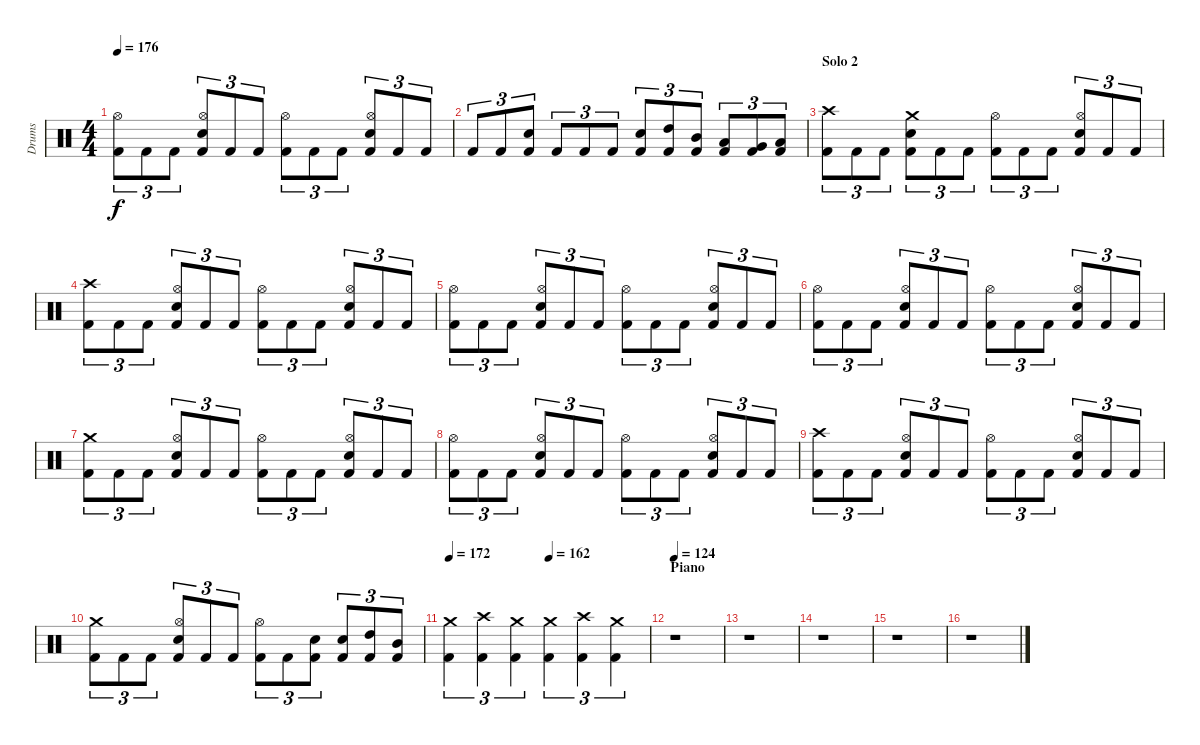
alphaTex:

\track ("Drums" "Drums") {instrument percussion}
\staff {score}
\articulation defaults
\ts (4 4)
\tempo 176
\clef neutral
\ks c
("Kick (hit) 2" "Hi-Hat (open)").8{tu (3 2) dy f} "Kick (hit) 2".8{tu (3 2)} "Kick (hit) 2".8{tu (3 2)} ("Kick (hit) 2" "Electric Snare (hit)" "Hi-Hat (open)").8{tu (3 2)} "Kick (hit) 2".8{tu (3 2)} "Kick (hit) 2".8{tu (3 2)} ("Kick (hit) 2" "Hi-Hat (open)").8{tu (3 2)} "Kick (hit) 2".8{tu (3 2)} "Kick (hit) 2".8{tu (3 2)} ("Kick (hit) 2" "Electric Snare (hit)" "Hi-Hat (open)").8{tu (3 2)} "Kick (hit) 2".8{tu (3 2)} "Kick (hit) 2".8{tu (3 2)} |
"Kick (hit) 2".8{tu (3 2)} "Kick (hit) 2".8{tu (3 2)} ("Kick (hit) 2" "Electric Snare (hit)").8{tu (3 2)} "Kick (hit) 2".8{tu (3 2)} "Kick (hit) 2".8{tu (3 2)} "Kick (hit) 2".8{tu (3 2)} ("Kick (hit) 2" "Electric Snare (hit)").8{tu (3 2)} ("Kick (hit) 2" "High Tom (hit)").8{tu (3 2)} ("Kick (hit) 2" "Mid Tom (hit)").8{tu (3 2)} ("Kick (hit) 2" "Low Tom (hit)").8{tu (3 2)} ("Kick (hit) 2" "Very Low Tom (hit)").8{tu (3 2)} ("Kick (hit) 2" "Low Floor Tom (hit)").8{tu (3 2)} |
\section ("" "Solo 2")
("Kick (hit) 2" "Crash high (hit)").8{tu (3 2)} "Kick (hit) 2".8{tu (3 2)} "Kick (hit) 2".8{tu (3 2)} ("Kick (hit) 2" "Electric Snare (hit)" "Crash medium (hit)").8{tu (3 2)} "Kick (hit) 2".8{tu (3 2)} "Kick (hit) 2".8{tu (3 2)} ("Kick (hit) 2" "Hi-Hat (open)").8{tu (3 2)} "Kick (hit) 2".8{tu (3 2)} "Kick (hit) 2".8{tu (3 2)} ("Kick (hit) 2" "Electric Snare (hit)" "Hi-Hat (open)").8{tu (3 2)} "Kick (hit) 2".8{tu (3 2)} "Kick (hit) 2".8{tu (3 2)} |
("Kick (hit) 2" "Crash high (hit)").8{tu (3 2)} "Kick (hit) 2".8{tu (3 2)} "Kick (hit) 2".8{tu (3 2)} ("Kick (hit) 2" "Electric Snare (hit)" "Hi-Hat (open)").8{tu (3 2)} "Kick (hit) 2".8{tu (3 2)} "Kick (hit) 2".8{tu (3 2)} ("Kick (hit) 2" "Hi-Hat (open)").8{tu (3 2)} "Kick (hit) 2".8{tu (3 2)} "Kick (hit) 2".8{tu (3 2)} ("Kick (hit) 2" "Electric Snare (hit)" "Hi-Hat (open)").8{tu (3 2)} "Kick (hit) 2".8{tu (3 2)} "Kick (hit) 2".8{tu (3 2)} |
("Kick (hit) 2" "Hi-Hat (open)").8{tu (3 2)} "Kick (hit) 2".8{tu (3 2)} "Kick (hit) 2".8{tu (3 2)} ("Kick (hit) 2" "Electric Snare (hit)" "Hi-Hat (open)").8{tu (3 2)} "Kick (hit) 2".8{tu (3 2)} "Kick (hit) 2".8{tu (3 2)} ("Kick (hit) 2" "Hi-Hat (open)").8{tu (3 2)} "Kick (hit) 2".8{tu (3 2)} "Kick (hit) 2".8{tu (3 2)} ("Kick (hit) 2" "Electric Snare (hit)" "Hi-Hat (open)").8{tu (3 2)} "Kick (hit) 2".8{tu (3 2)} "Kick (hit) 2".8{tu (3 2)} |
("Kick (hit) 2" "Hi-Hat (open)").8{tu (3 2)} "Kick (hit) 2".8{tu (3 2)} "Kick (hit) 2".8{tu (3 2)} ("Kick (hit) 2" "Electric Snare (hit)" "Hi-Hat (open)").8{tu (3 2)} "Kick (hit) 2".8{tu (3 2)} "Kick (hit) 2".8{tu (3 2)} ("Kick (hit) 2" "Hi-Hat (open)").8{tu (3 2)} "Kick (hit) 2".8{tu (3 2)} "Kick (hit) 2".8{tu (3 2)} ("Kick (hit) 2" "Electric Snare (hit)" "Hi-Hat (open)").8{tu (3 2)} "Kick (hit) 2".8{tu (3 2)} "Kick (hit) 2".8{tu (3 2)} |
("Kick (hit) 2" "Crash medium (hit)").8{tu (3 2)} "Kick (hit) 2".8{tu (3 2)} "Kick (hit) 2".8{tu (3 2)} ("Kick (hit) 2" "Electric Snare (hit)" "Hi-Hat (open)").8{tu (3 2)} "Kick (hit) 2".8{tu (3 2)} "Kick (hit) 2".8{tu (3 2)} ("Kick (hit) 2" "Hi-Hat (open)").8{tu (3 2)} "Kick (hit) 2".8{tu (3 2)} "Kick (hit) 2".8{tu (3 2)} ("Kick (hit) 2" "Electric Snare (hit)" "Hi-Hat (open)").8{tu (3 2)} "Kick (hit) 2".8{tu (3 2)} "Kick (hit) 2".8{tu (3 2)} |
("Kick (hit) 2" "Hi-Hat (open)").8{tu (3 2)} "Kick (hit) 2".8{tu (3 2)} "Kick (hit) 2".8{tu (3 2)} ("Kick (hit) 2" "Electric Snare (hit)" "Hi-Hat (open)").8{tu (3 2)} "Kick (hit) 2".8{tu (3 2)} "Kick (hit) 2".8{tu (3 2)} ("Kick (hit) 2" "Hi-Hat (open)").8{tu (3 2)} "Kick (hit) 2".8{tu (3 2)} "Kick (hit) 2".8{tu (3 2)} ("Kick (hit) 2" "Electric Snare (hit)" "Hi-Hat (open)").8{tu (3 2)} "Kick (hit) 2".8{tu (3 2)} "Kick (hit) 2".8{tu (3 2)} |
("Kick (hit) 2" "Crash high (hit)").8{tu (3 2)} "Kick (hit) 2".8{tu (3 2)} "Kick (hit) 2".8{tu (3 2)} ("Kick (hit) 2" "Electric Snare (hit)" "Hi-Hat (open)").8{tu (3 2)} "Kick (hit) 2".8{tu (3 2)} "Kick (hit) 2".8{tu (3 2)} ("Kick (hit) 2" "Hi-Hat (open)").8{tu (3 2)} "Kick (hit) 2".8{tu (3 2)} "Kick (hit) 2".8{tu (3 2)} ("Kick (hit) 2" "Electric Snare (hit)" "Hi-Hat (open)").8{tu (3 2)} "Kick (hit) 2".8{tu (3 2)} "Kick (hit) 2".8{tu (3 2)} |
("Kick (hit) 2" "Crash medium (hit)").8{tu (3 2)} "Kick (hit) 2".8{tu (3 2)} "Kick (hit) 2".8{tu (3 2)} ("Kick (hit) 2" "Electric Snare (hit)" "Hi-Hat (open)").8{tu (3 2)} "Kick (hit) 2".8{tu (3 2)} "Kick (hit) 2".8{tu (3 2)} ("Kick (hit) 2" "Hi-Hat (open)").8{tu (3 2)} "Kick (hit) 2".8{tu (3 2)} ("Kick (hit) 2" "Electric Snare (hit)").8{tu (3 2)} ("Kick (hit) 2" "Electric Snare (hit)").8{tu (3 2)} ("Kick (hit) 2" "High Tom (hit)").8{tu (3 2)} ("Kick (hit) 2" "Mid Tom (hit)").8{tu (3 2)} |
\tempo 172
\tempo (162 0.5)
("Kick (hit) 2" "Crash medium (hit)").4{tu (3 2)} ("Kick (hit) 2" "Crash high (hit)").4{tu (3 2)} ("Kick (hit) 2" "Crash medium (hit)").4{tu (3 2)} ("Kick (hit) 2" "Crash medium (hit)").4{tu (3 2)} ("Kick (hit) 2" "Crash high (hit)").4{tu (3 2)} ("Kick (hit) 2" "Crash medium (hit)").4{tu (3 2)} |
\section ("" "Piano")
\tempo 124
r.1 |
r.1 |
r.1 |
r.1 |
r.1
